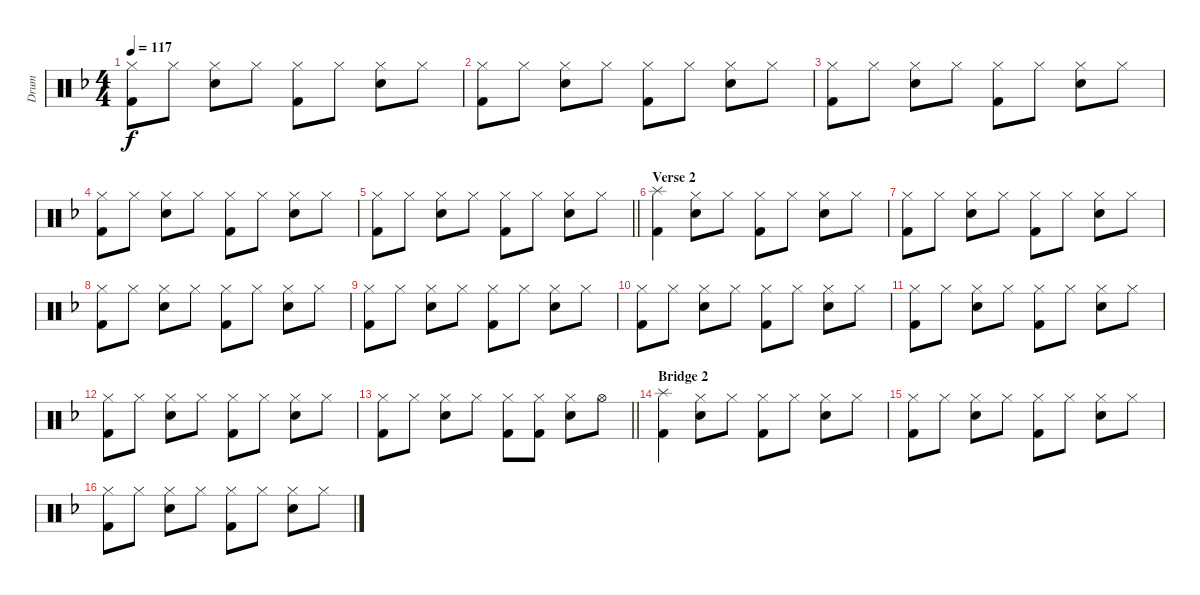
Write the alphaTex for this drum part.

\track ("Drum" "Drum") {instrument percussion}
\staff {score}
\articulation defaults
\ts (4 4)
\tempo 117
\clef neutral
\ks f
("Kick (hit) 2" "Hi-Hat (closed)").8{dy f} "Hi-Hat (closed)".8 ("Snare (hit) 2" "Hi-Hat (closed)").8 "Hi-Hat (closed)".8 ("Kick (hit) 2" "Hi-Hat (closed)").8 "Hi-Hat (closed)".8 ("Snare (hit) 2" "Hi-Hat (closed)").8 "Hi-Hat (closed)".8 |
("Kick (hit) 2" "Hi-Hat (closed)").8 "Hi-Hat (closed)".8 ("Snare (hit) 2" "Hi-Hat (closed)").8 "Hi-Hat (closed)".8 ("Kick (hit) 2" "Hi-Hat (closed)").8 "Hi-Hat (closed)".8 ("Snare (hit) 2" "Hi-Hat (closed)").8 "Hi-Hat (closed)".8 |
("Kick (hit) 2" "Hi-Hat (closed)").8 "Hi-Hat (closed)".8 ("Snare (hit) 2" "Hi-Hat (closed)").8 "Hi-Hat (closed)".8 ("Kick (hit) 2" "Hi-Hat (closed)").8 "Hi-Hat (closed)".8 ("Snare (hit) 2" "Hi-Hat (closed)").8 "Hi-Hat (closed)".8 |
("Kick (hit) 2" "Hi-Hat (closed)").8 "Hi-Hat (closed)".8 ("Snare (hit) 2" "Hi-Hat (closed)").8 "Hi-Hat (closed)".8 ("Kick (hit) 2" "Hi-Hat (closed)").8 "Hi-Hat (closed)".8 ("Snare (hit) 2" "Hi-Hat (closed)").8 "Hi-Hat (closed)".8 |
\barLineRight lightlight
("Kick (hit) 2" "Hi-Hat (closed)").8 "Hi-Hat (closed)".8 ("Snare (hit) 2" "Hi-Hat (closed)").8 "Hi-Hat (closed)".8 ("Kick (hit) 2" "Hi-Hat (closed)").8 "Hi-Hat (closed)".8 ("Snare (hit) 2" "Hi-Hat (closed)").8 "Hi-Hat (closed)".8 |
\section ("" "Verse 2")
("Kick (hit) 2" "Splash (hit)").4 ("Snare (hit) 2" "Hi-Hat (closed)").8 "Hi-Hat (closed)".8 ("Kick (hit) 2" "Hi-Hat (closed)").8 "Hi-Hat (closed)".8 ("Snare (hit) 2" "Hi-Hat (closed)").8 "Hi-Hat (closed)".8 |
("Kick (hit) 2" "Hi-Hat (closed)").8 "Hi-Hat (closed)".8 ("Snare (hit) 2" "Hi-Hat (closed)").8 "Hi-Hat (closed)".8 ("Kick (hit) 2" "Hi-Hat (closed)").8 "Hi-Hat (closed)".8 ("Snare (hit) 2" "Hi-Hat (closed)").8 "Hi-Hat (closed)".8 |
("Kick (hit) 2" "Hi-Hat (closed)").8 "Hi-Hat (closed)".8 ("Snare (hit) 2" "Hi-Hat (closed)").8 "Hi-Hat (closed)".8 ("Kick (hit) 2" "Hi-Hat (closed)").8 "Hi-Hat (closed)".8 ("Snare (hit) 2" "Hi-Hat (closed)").8 "Hi-Hat (closed)".8 |
("Kick (hit) 2" "Hi-Hat (closed)").8 "Hi-Hat (closed)".8 ("Snare (hit) 2" "Hi-Hat (closed)").8 "Hi-Hat (closed)".8 ("Kick (hit) 2" "Hi-Hat (closed)").8 "Hi-Hat (closed)".8 ("Snare (hit) 2" "Hi-Hat (closed)").8 "Hi-Hat (closed)".8 |
("Kick (hit) 2" "Hi-Hat (closed)").8 "Hi-Hat (closed)".8 ("Snare (hit) 2" "Hi-Hat (closed)").8 "Hi-Hat (closed)".8 ("Kick (hit) 2" "Hi-Hat (closed)").8 "Hi-Hat (closed)".8 ("Snare (hit) 2" "Hi-Hat (closed)").8 "Hi-Hat (closed)".8 |
("Kick (hit) 2" "Hi-Hat (closed)").8 "Hi-Hat (closed)".8 ("Snare (hit) 2" "Hi-Hat (closed)").8 "Hi-Hat (closed)".8 ("Kick (hit) 2" "Hi-Hat (closed)").8 "Hi-Hat (closed)".8 ("Snare (hit) 2" "Hi-Hat (closed)").8 "Hi-Hat (closed)".8 |
("Kick (hit) 2" "Hi-Hat (closed)").8 "Hi-Hat (closed)".8 ("Snare (hit) 2" "Hi-Hat (closed)").8 "Hi-Hat (closed)".8 ("Kick (hit) 2" "Hi-Hat (closed)").8 "Hi-Hat (closed)".8 ("Snare (hit) 2" "Hi-Hat (closed)").8 "Hi-Hat (closed)".8 |
\barLineRight lightlight
("Kick (hit) 2" "Hi-Hat (closed)").8 "Hi-Hat (closed)".8 ("Snare (hit) 2" "Hi-Hat (closed)").8 "Hi-Hat (closed)".8 ("Kick (hit) 2" "Hi-Hat (closed)").8 ("Kick (hit) 2" "Hi-Hat (closed)").8 ("Snare (hit) 2" "Hi-Hat (closed)").8 "Hi-Hat (open)".8 |
\section ("" "Bridge 2")
("Kick (hit) 2" "Splash (hit)").4 ("Snare (hit) 2" "Hi-Hat (closed)").8 "Hi-Hat (closed)".8 ("Kick (hit) 2" "Hi-Hat (closed)").8 "Hi-Hat (closed)".8 ("Snare (hit) 2" "Hi-Hat (closed)").8 "Hi-Hat (closed)".8 |
("Kick (hit) 2" "Hi-Hat (closed)").8 "Hi-Hat (closed)".8 ("Snare (hit) 2" "Hi-Hat (closed)").8 "Hi-Hat (closed)".8 ("Kick (hit) 2" "Hi-Hat (closed)").8 "Hi-Hat (closed)".8 ("Snare (hit) 2" "Hi-Hat (closed)").8 "Hi-Hat (closed)".8 |
("Kick (hit) 2" "Hi-Hat (closed)").8 "Hi-Hat (closed)".8 ("Snare (hit) 2" "Hi-Hat (closed)").8 "Hi-Hat (closed)".8 ("Kick (hit) 2" "Hi-Hat (closed)").8 "Hi-Hat (closed)".8 ("Snare (hit) 2" "Hi-Hat (closed)").8 "Hi-Hat (closed)".8
